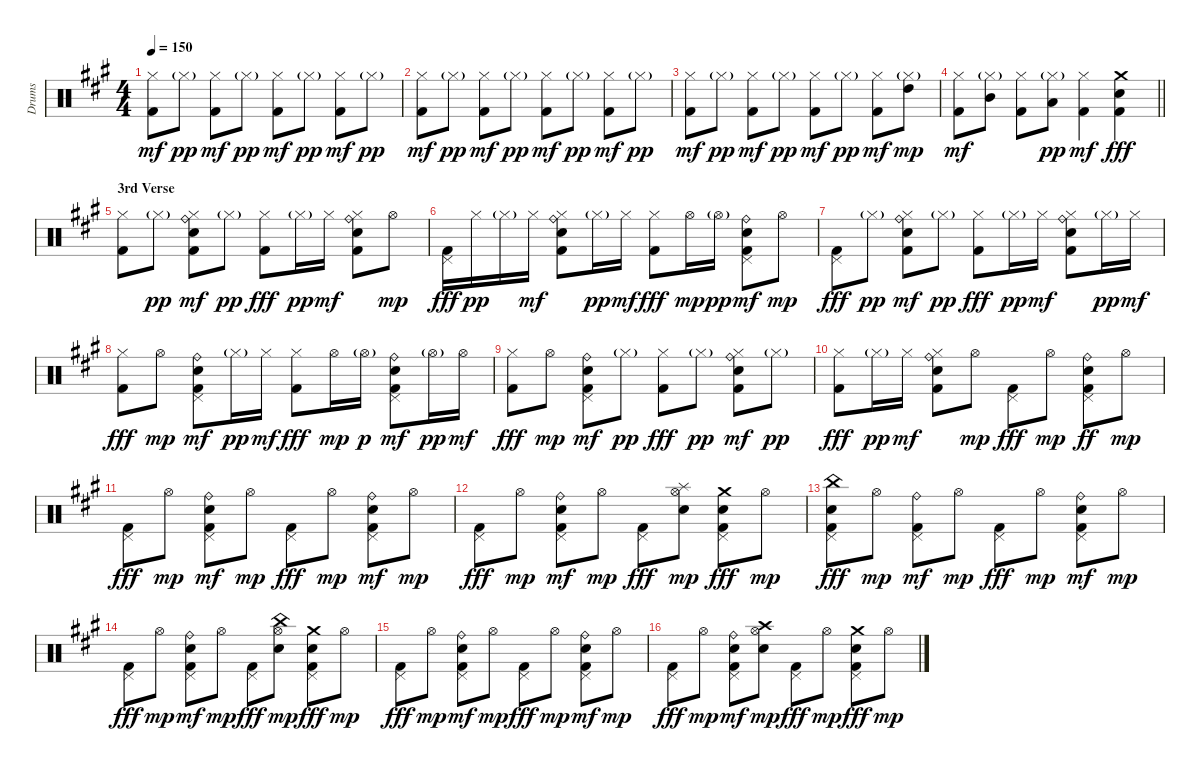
\track ("Drums" "Drums") {instrument percussion}
\staff {score}
\articulation defaults
\ts (4 4)
\tempo 150
\clef neutral
\ks a
("Kick (hit) 2" "Hi-Hat (closed)").8{dy mf} "Hi-Hat (closed)"{g}.8{dy pp} ("Kick (hit) 2" "Hi-Hat (closed)").8{dy mf} "Hi-Hat (closed)"{g}.8{dy pp} ("Kick (hit) 2" "Hi-Hat (closed)").8{dy mf} "Hi-Hat (closed)"{g}.8{dy pp} ("Kick (hit) 2" "Hi-Hat (closed)").8{dy mf} "Hi-Hat (closed)"{g}.8{dy pp} |
("Kick (hit) 2" "Hi-Hat (closed)").8{dy mf} "Hi-Hat (closed)"{g}.8{dy pp} ("Kick (hit) 2" "Hi-Hat (closed)").8{dy mf} "Hi-Hat (closed)"{g}.8{dy pp} ("Kick (hit) 2" "Hi-Hat (closed)").8{dy mf} "Hi-Hat (closed)"{g}.8{dy pp} ("Kick (hit) 2" "Hi-Hat (closed)").8{dy mf} "Hi-Hat (closed)"{g}.8{dy pp} |
("Kick (hit) 2" "Hi-Hat (closed)").8{dy mf} "Hi-Hat (closed)"{g}.8{dy pp} ("Kick (hit) 2" "Hi-Hat (closed)").8{dy mf} "Hi-Hat (closed)"{g}.8{dy pp} ("Kick (hit) 2" "Hi-Hat (closed)").8{dy mf} "Hi-Hat (closed)"{g}.8{dy pp} ("Kick (hit) 2" "Hi-Hat (closed)").8{dy mf} ("Hi-Hat (closed)"{g} "High Tom (hit)").8{dy mp} |
\barLineRight lightlight
("Kick (hit) 2" "Hi-Hat (closed)").8{dy mf} ("Hi-Hat (closed)"{g} "Mid Tom (hit)").8 ("Kick (hit) 2" "Hi-Hat (closed)").8 ("Hi-Hat (closed)"{g} "Low Tom (hit)").8{dy pp} ("Kick (hit) 2" "Hi-Hat (closed)").4{dy mf} ("Kick (hit) 2" "Electric Snare (hit)" "Crash medium (hit)").4{dy fff} |
\section ("" "3rd Verse")
("Kick (hit) 2" "Hi-Hat (closed)").8 "Hi-Hat (closed)"{g}.8{dy pp} ("Kick (hit) 2" "Electric Snare (hit)" "Hi-Hat (closed)" "Ride (bell)").8{dy mf} "Hi-Hat (closed)"{g}.8{dy pp} ("Kick (hit) 2" "Hi-Hat (closed)").8{dy fff} "Hi-Hat (closed)"{g}.16{dy pp} "Hi-Hat (closed)".16{dy mf} ("Kick (hit) 2" "Electric Snare (hit)" "Hi-Hat (closed)" "Ride (bell)").8 "Hi-Hat (open)".8{dy mp} |
("Kick (hit) 2" "Pedal Hi-Hat (hit)").16{dy fff} "Hi-Hat (closed)".16{dy pp} "Hi-Hat (closed)"{g}.16 "Hi-Hat (closed)".16{dy mf} ("Kick (hit) 2" "Electric Snare (hit)" "Hi-Hat (closed)" "Ride (bell)").8 "Hi-Hat (closed)"{g}.16{dy pp} "Hi-Hat (closed)".16{dy mf} ("Kick (hit) 2" "Hi-Hat (closed)").8{dy fff} "Hi-Hat (open)".16{dy mp} "Hi-Hat (open)"{g}.16{dy pp} ("Kick (hit) 2" "Electric Snare (hit)" "Pedal Hi-Hat (hit)" "Ride (bell)").8{dy mf} "Hi-Hat (open)".8{dy mp} |
("Kick (hit) 2" "Pedal Hi-Hat (hit)").8{dy fff} "Hi-Hat (closed)"{g}.8{dy pp} ("Kick (hit) 2" "Electric Snare (hit)" "Hi-Hat (closed)" "Ride (bell)").8{dy mf} "Hi-Hat (closed)"{g}.8{dy pp} ("Kick (hit) 2" "Hi-Hat (closed)").8{dy fff} "Hi-Hat (closed)"{g}.16{dy pp} "Hi-Hat (closed)".16{dy mf} ("Kick (hit) 2" "Electric Snare (hit)" "Hi-Hat (closed)" "Ride (bell)").8 "Hi-Hat (closed)"{g}.16{dy pp} "Hi-Hat (closed)".16{dy mf} |
("Kick (hit) 2" "Hi-Hat (closed)").8{dy fff} "Hi-Hat (open)".8{dy mp} ("Kick (hit) 2" "Electric Snare (hit)" "Pedal Hi-Hat (hit)" "Ride (bell)").8{dy mf} "Hi-Hat (closed)"{g}.16{dy pp} "Hi-Hat (closed)".16{dy mf} ("Kick (hit) 2" "Hi-Hat (closed)").8{dy fff} "Hi-Hat (open)".16{dy mp} "Hi-Hat (open)"{g}.16{dy p} ("Kick (hit) 2" "Electric Snare (hit)" "Pedal Hi-Hat (hit)" "Ride (bell)").8{dy mf} "Hi-Hat (open)"{g}.16{dy pp} "Hi-Hat (open)".16{dy mf} |
("Kick (hit) 2" "Hi-Hat (closed)").8{dy fff} "Hi-Hat (open)".8{dy mp} ("Kick (hit) 2" "Electric Snare (hit)" "Pedal Hi-Hat (hit)" "Ride (bell)").8{dy mf} "Hi-Hat (closed)"{g}.8{dy pp} ("Kick (hit) 2" "Hi-Hat (closed)").8{dy fff} "Hi-Hat (closed)"{g}.8{dy pp} ("Kick (hit) 2" "Electric Snare (hit)" "Hi-Hat (closed)" "Ride (bell)").8{dy mf} "Hi-Hat (closed)"{g}.8{dy pp} |
("Kick (hit) 2" "Hi-Hat (closed)").8{dy fff} "Hi-Hat (closed)"{g}.16{dy pp} "Hi-Hat (closed)".16{dy mf} ("Kick (hit) 2" "Electric Snare (hit)" "Hi-Hat (closed)" "Ride (bell)").8 "Hi-Hat (open)".8{dy mp} ("Kick (hit) 2" "Pedal Hi-Hat (hit)").8{dy fff} "Hi-Hat (open)".8{dy mp} ("Kick (hit) 2" "Electric Snare (hit)" "Pedal Hi-Hat (hit)" "Ride (bell)").8{dy ff} "Hi-Hat (open)".8{dy mp} |
("Kick (hit) 2" "Pedal Hi-Hat (hit)").8{dy fff} "Hi-Hat (open)".8{dy mp} ("Kick (hit) 2" "Electric Snare (hit)" "Pedal Hi-Hat (hit)" "Ride (bell)").8{dy mf} "Hi-Hat (open)".8{dy mp} ("Kick (hit) 2" "Pedal Hi-Hat (hit)").8{dy fff} "Hi-Hat (open)".8{dy mp} ("Kick (hit) 2" "Electric Snare (hit)" "Pedal Hi-Hat (hit)" "Ride (bell)").8{dy mf} "Hi-Hat (open)".8{dy mp} |
("Kick (hit) 2" "Pedal Hi-Hat (hit)").8{dy fff} "Hi-Hat (open)".8{dy mp} ("Kick (hit) 2" "Electric Snare (hit)" "Pedal Hi-Hat (hit)" "Ride (bell)").8{dy mf} "Hi-Hat (open)".8{dy mp} ("Kick (hit) 2" "Pedal Hi-Hat (hit)").8{dy fff} ("Electric Snare (hit)" "Hi-Hat (open)" "Splash (hit)").8{dy mp} ("Kick (hit) 2" "Electric Snare (hit)" "Pedal Hi-Hat (hit)" "Crash medium (hit)").8{dy fff} "Hi-Hat (open)".8{dy mp} |
("Kick (hit) 2" "Electric Snare (hit)" "Pedal Hi-Hat (hit)" "China (hit)").8{dy fff} "Hi-Hat (open)".8{dy mp} ("Kick (hit) 2" "Pedal Hi-Hat (hit)" "Ride (bell)").8{dy mf} "Hi-Hat (open)".8{dy mp} ("Kick (hit) 2" "Pedal Hi-Hat (hit)").8{dy fff} "Hi-Hat (open)".8{dy mp} ("Kick (hit) 2" "Electric Snare (hit)" "Pedal Hi-Hat (hit)" "Ride (bell)").8{dy mf} "Hi-Hat (open)".8{dy mp} |
("Kick (hit) 2" "Pedal Hi-Hat (hit)").8{dy fff} "Hi-Hat (open)".8{dy mp} ("Kick (hit) 2" "Electric Snare (hit)" "Pedal Hi-Hat (hit)" "Ride (bell)").8{dy mf} "Hi-Hat (open)".8{dy mp} ("Kick (hit) 2" "Pedal Hi-Hat (hit)").8{dy fff} ("Electric Snare (hit)" "Hi-Hat (open)" "China (hit)").8{dy mp} ("Kick (hit) 2" "Electric Snare (hit)" "Pedal Hi-Hat (hit)" "Crash medium (hit)").8{dy fff} "Hi-Hat (open)".8{dy mp} |
("Kick (hit) 2" "Pedal Hi-Hat (hit)").8{dy fff} "Hi-Hat (open)".8{dy mp} ("Kick (hit) 2" "Electric Snare (hit)" "Pedal Hi-Hat (hit)" "Ride (bell)").8{dy mf} "Hi-Hat (open)".8{dy mp} ("Kick (hit) 2" "Pedal Hi-Hat (hit)").8{dy fff} "Hi-Hat (open)".8{dy mp} ("Kick (hit) 2" "Electric Snare (hit)" "Pedal Hi-Hat (hit)" "Ride (bell)").8{dy mf} "Hi-Hat (open)".8{dy mp} |
("Kick (hit) 2" "Pedal Hi-Hat (hit)").8{dy fff} "Hi-Hat (open)".8{dy mp} ("Kick (hit) 2" "Electric Snare (hit)" "Pedal Hi-Hat (hit)" "Ride (bell)").8{dy mf} ("Electric Snare (hit)" "Hi-Hat (open)" "Crash high (hit)").8{dy mp} ("Kick (hit) 2" "Pedal Hi-Hat (hit)").8{dy fff} "Hi-Hat (open)".8{dy mp} ("Kick (hit) 2" "Electric Snare (hit)" "Pedal Hi-Hat (hit)" "Crash medium (hit)").8{dy fff} "Hi-Hat (open)".8{dy mp}
